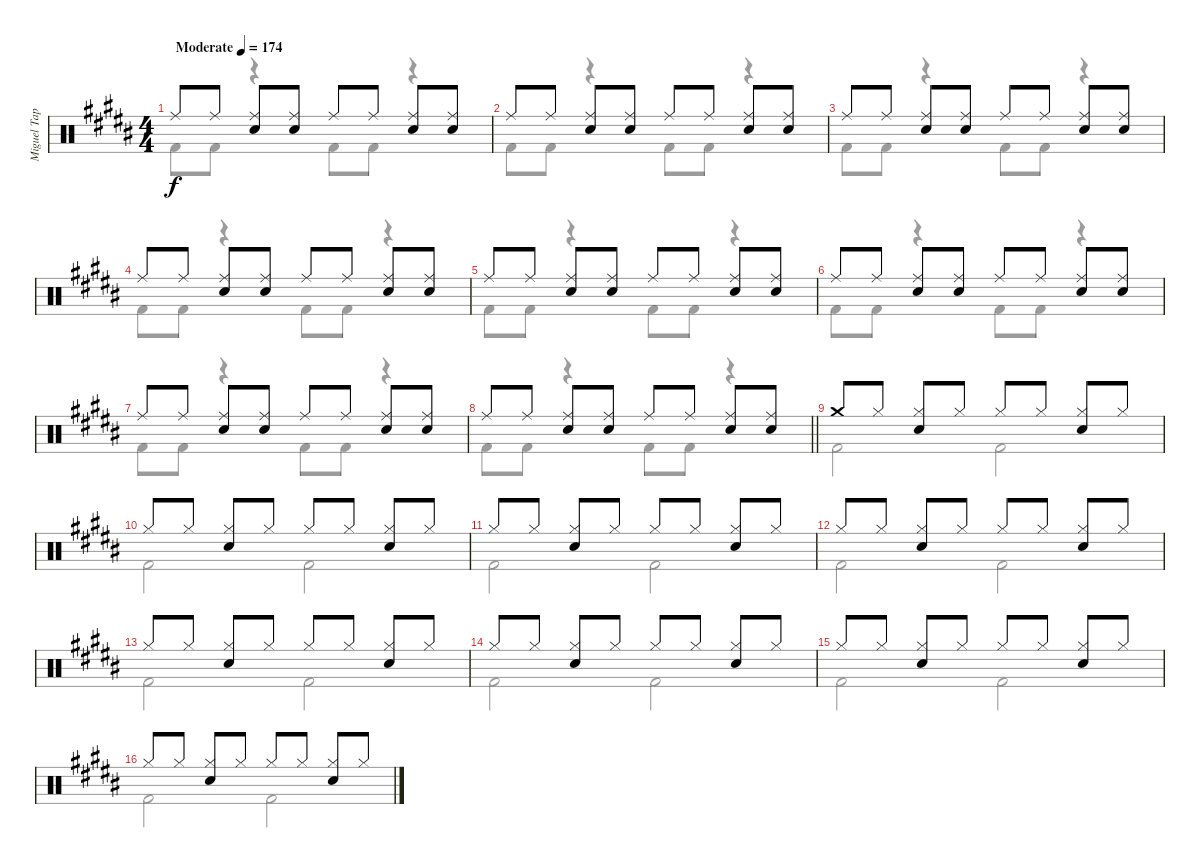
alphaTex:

\track ("Miguel Tapia" "Miguel Tap") {instrument percussion}
\staff {score}
\articulation defaults
\voice
\ts (4 4)
\tempo (174 "Moderate")
\clef neutral
\ks b "Ride (middle)".8{dy f} "Ride (middle)".8
("Ride (middle)" "Snare (hit) 2").8 ("Ride (middle)" "Snare (hit) 2").8 "Ride (middle)".8 "Ride (middle)".8 ("Ride (middle)" "Snare (hit) 2").8 ("Ride (middle)" "Snare (hit) 2").8 |
"Ride (middle)".8 "Ride (middle)".8 ("Ride (middle)" "Snare (hit) 2").8 ("Ride (middle)" "Snare (hit) 2").8 "Ride (middle)".8 "Ride (middle)".8 ("Ride (middle)" "Snare (hit) 2").8 ("Ride (middle)" "Snare (hit) 2").8 |
"Ride (middle)".8 "Ride (middle)".8 ("Ride (middle)" "Snare (hit) 2").8 ("Ride (middle)" "Snare (hit) 2").8 "Ride (middle)".8 "Ride (middle)".8 ("Ride (middle)" "Snare (hit) 2").8 ("Ride (middle)" "Snare (hit) 2").8 |
"Ride (middle)".8 "Ride (middle)".8 ("Ride (middle)" "Snare (hit) 2").8 ("Ride (middle)" "Snare (hit) 2").8 "Ride (middle)".8 "Ride (middle)".8 ("Ride (middle)" "Snare (hit) 2").8 ("Ride (middle)" "Snare (hit) 2").8 |
"Ride (middle)".8 "Ride (middle)".8 ("Ride (middle)" "Snare (hit) 2").8 ("Ride (middle)" "Snare (hit) 2").8 "Ride (middle)".8 "Ride (middle)".8 ("Ride (middle)" "Snare (hit) 2").8 ("Ride (middle)" "Snare (hit) 2").8 |
"Ride (middle)".8 "Ride (middle)".8 ("Ride (middle)" "Snare (hit) 2").8 ("Ride (middle)" "Snare (hit) 2").8 "Ride (middle)".8 "Ride (middle)".8 ("Ride (middle)" "Snare (hit) 2").8 ("Ride (middle)" "Snare (hit) 2").8 |
"Ride (middle)".8 "Ride (middle)".8 ("Ride (middle)" "Snare (hit) 2").8 ("Ride (middle)" "Snare (hit) 2").8 "Ride (middle)".8 "Ride (middle)".8 ("Ride (middle)" "Snare (hit) 2").8 ("Ride (middle)" "Snare (hit) 2").8 |
\barLineRight lightlight "Ride (middle)".8 "Ride (middle)".8
("Ride (middle)" "Snare (hit) 2").8 ("Ride (middle)" "Snare (hit) 2").8 "Ride (middle)".8 "Ride (middle)".8 ("Ride (middle)" "Snare (hit) 2").8 ("Ride (middle)" "Snare (hit) 2").8 |
"Crash medium (hit)".8 "Hi-Hat (closed)".8 ("Hi-Hat (closed)" "Snare (hit) 2").8 "Hi-Hat (closed)".8 "Hi-Hat (closed)".8 "Hi-Hat (closed)".8 ("Hi-Hat (closed)" "Snare (hit) 2").8 "Hi-Hat (closed)".8 |
"Hi-Hat (closed)".8 "Hi-Hat (closed)".8 ("Hi-Hat (closed)" "Snare (hit) 2").8 "Hi-Hat (closed)".8 "Hi-Hat (closed)".8 "Hi-Hat (closed)".8 ("Hi-Hat (closed)" "Snare (hit) 2").8 "Hi-Hat (closed)".8 |
"Hi-Hat (closed)".8 "Hi-Hat (closed)".8 ("Hi-Hat (closed)" "Snare (hit) 2").8 "Hi-Hat (closed)".8 "Hi-Hat (closed)".8 "Hi-Hat (closed)".8 ("Hi-Hat (closed)" "Snare (hit) 2").8 "Hi-Hat (closed)".8 |
"Hi-Hat (closed)".8 "Hi-Hat (closed)".8 ("Hi-Hat (closed)" "Snare (hit) 2").8 "Hi-Hat (closed)".8 "Hi-Hat (closed)".8 "Hi-Hat (closed)".8 ("Hi-Hat (closed)" "Snare (hit) 2").8 "Hi-Hat (closed)".8 |
"Hi-Hat (closed)".8 "Hi-Hat (closed)".8 ("Hi-Hat (closed)" "Snare (hit) 2").8 "Hi-Hat (closed)".8 "Hi-Hat (closed)".8 "Hi-Hat (closed)".8 ("Hi-Hat (closed)" "Snare (hit) 2").8 "Hi-Hat (closed)".8 |
"Hi-Hat (closed)".8 "Hi-Hat (closed)".8 ("Hi-Hat (closed)" "Snare (hit) 2").8 "Hi-Hat (closed)".8 "Hi-Hat (closed)".8 "Hi-Hat (closed)".8 ("Hi-Hat (closed)" "Snare (hit) 2").8 "Hi-Hat (closed)".8 |
"Hi-Hat (closed)".8 "Hi-Hat (closed)".8 ("Hi-Hat (closed)" "Snare (hit) 2").8 "Hi-Hat (closed)".8 "Hi-Hat (closed)".8 "Hi-Hat (closed)".8 ("Hi-Hat (closed)" "Snare (hit) 2").8 "Hi-Hat (closed)".8 |
"Hi-Hat (closed)".8 "Hi-Hat (closed)".8 ("Hi-Hat (closed)" "Snare (hit) 2").8 "Hi-Hat (closed)".8 "Hi-Hat (closed)".8 "Hi-Hat (closed)".8 ("Hi-Hat (closed)" "Snare (hit) 2").8 "Hi-Hat (closed)".8
\voice
\clef neutral
\ottava regular
\simile none
\ks b "Kick (hit) 2".8{dy f} "Kick (hit) 2".8
r.4 "Kick (hit) 2".8 "Kick (hit) 2".8 r.4 |
"Kick (hit) 2".8 "Kick (hit) 2".8 r.4 "Kick (hit) 2".8 "Kick (hit) 2".8 r.4 |
"Kick (hit) 2".8 "Kick (hit) 2".8 r.4 "Kick (hit) 2".8 "Kick (hit) 2".8 r.4 |
"Kick (hit) 2".8 "Kick (hit) 2".8 r.4 "Kick (hit) 2".8 "Kick (hit) 2".8 r.4 |
"Kick (hit) 2".8 "Kick (hit) 2".8 r.4 "Kick (hit) 2".8 "Kick (hit) 2".8 r.4 |
"Kick (hit) 2".8 "Kick (hit) 2".8 r.4 "Kick (hit) 2".8 "Kick (hit) 2".8 r.4 |
"Kick (hit) 2".8 "Kick (hit) 2".8 r.4 "Kick (hit) 2".8 "Kick (hit) 2".8 r.4 |
\barLineRight lightlight "Kick (hit) 2".8 "Kick (hit) 2".8
r.4 "Kick (hit) 2".8 "Kick (hit) 2".8 r.4 |
"Kick (hit) 2".2 "Kick (hit) 2".2 |
"Kick (hit) 2".2 "Kick (hit) 2".2 |
"Kick (hit) 2".2 "Kick (hit) 2".2 |
"Kick (hit) 2".2 "Kick (hit) 2".2 |
"Kick (hit) 2".2 "Kick (hit) 2".2 |
"Kick (hit) 2".2 "Kick (hit) 2".2 |
"Kick (hit) 2".2 "Kick (hit) 2".2 |
"Kick (hit) 2".2 "Kick (hit) 2".2
